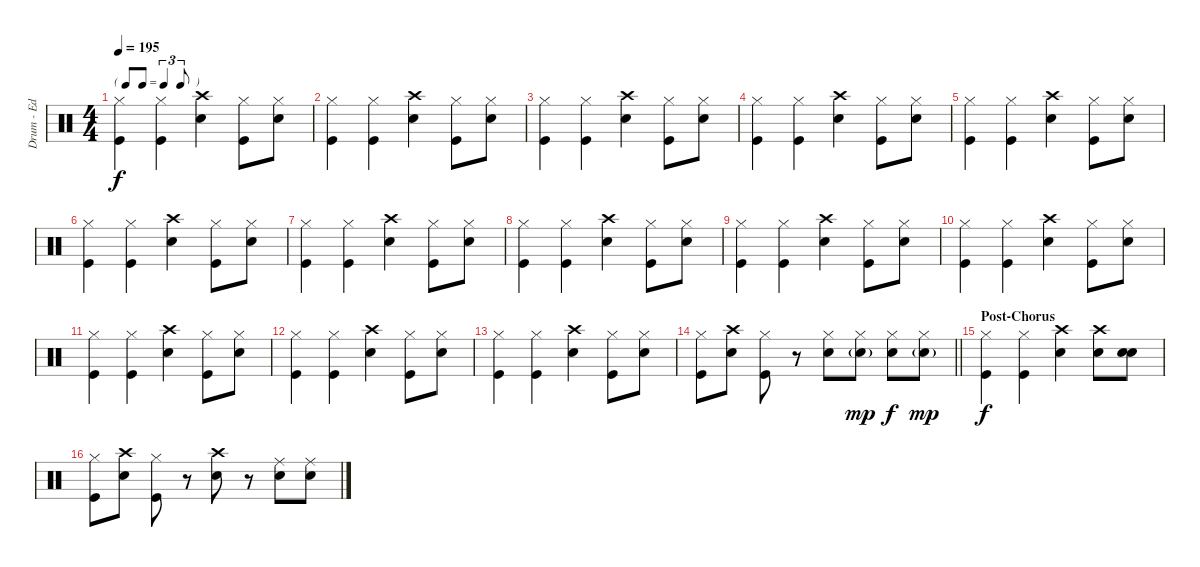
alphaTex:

\track ("Drum - Ed" "Drum - Ed") {instrument percussion}
\staff {score}
\articulation defaults
\ts (4 4)
\tf triplet8th
\tempo 195
\clef neutral
\ks c
("Hi-Hat (closed)" "Kick (hit)").4{dy f} ("Hi-Hat (closed)" "Kick (hit)").4 ("Crash high (hit)" "Electric Snare (hit)").4 ("Hi-Hat (closed)" "Kick (hit)").8 ("Hi-Hat (closed)" "Electric Snare (hit)").8 |
("Hi-Hat (closed)" "Kick (hit)").4 ("Hi-Hat (closed)" "Kick (hit)").4 ("Crash high (hit)" "Electric Snare (hit)").4 ("Hi-Hat (closed)" "Kick (hit)").8 ("Hi-Hat (closed)" "Electric Snare (hit)").8 |
("Hi-Hat (closed)" "Kick (hit)").4 ("Hi-Hat (closed)" "Kick (hit)").4 ("Crash high (hit)" "Electric Snare (hit)").4 ("Hi-Hat (closed)" "Kick (hit)").8 ("Hi-Hat (closed)" "Electric Snare (hit)").8 |
("Hi-Hat (closed)" "Kick (hit)").4 ("Hi-Hat (closed)" "Kick (hit)").4 ("Crash high (hit)" "Electric Snare (hit)").4 ("Hi-Hat (closed)" "Kick (hit)").8 ("Hi-Hat (closed)" "Electric Snare (hit)").8 |
("Hi-Hat (closed)" "Kick (hit)").4 ("Hi-Hat (closed)" "Kick (hit)").4 ("Crash high (hit)" "Electric Snare (hit)").4 ("Hi-Hat (closed)" "Kick (hit)").8 ("Hi-Hat (closed)" "Electric Snare (hit)").8 |
("Hi-Hat (closed)" "Kick (hit)").4 ("Hi-Hat (closed)" "Kick (hit)").4 ("Crash high (hit)" "Electric Snare (hit)").4 ("Hi-Hat (closed)" "Kick (hit)").8 ("Hi-Hat (closed)" "Electric Snare (hit)").8 |
("Hi-Hat (closed)" "Kick (hit)").4 ("Hi-Hat (closed)" "Kick (hit)").4 ("Crash high (hit)" "Electric Snare (hit)").4 ("Hi-Hat (closed)" "Kick (hit)").8 ("Hi-Hat (closed)" "Electric Snare (hit)").8 |
("Hi-Hat (closed)" "Kick (hit)").4 ("Hi-Hat (closed)" "Kick (hit)").4 ("Crash high (hit)" "Electric Snare (hit)").4 ("Hi-Hat (closed)" "Kick (hit)").8 ("Hi-Hat (closed)" "Electric Snare (hit)").8 |
("Hi-Hat (closed)" "Kick (hit)").4 ("Hi-Hat (closed)" "Kick (hit)").4 ("Crash high (hit)" "Electric Snare (hit)").4 ("Hi-Hat (closed)" "Kick (hit)").8 ("Hi-Hat (closed)" "Electric Snare (hit)").8 |
("Hi-Hat (closed)" "Kick (hit)").4 ("Hi-Hat (closed)" "Kick (hit)").4 ("Crash high (hit)" "Electric Snare (hit)").4 ("Hi-Hat (closed)" "Kick (hit)").8 ("Hi-Hat (closed)" "Electric Snare (hit)").8 |
("Hi-Hat (closed)" "Kick (hit)").4 ("Hi-Hat (closed)" "Kick (hit)").4 ("Crash high (hit)" "Electric Snare (hit)").4 ("Hi-Hat (closed)" "Kick (hit)").8 ("Hi-Hat (closed)" "Electric Snare (hit)").8 |
("Hi-Hat (closed)" "Kick (hit)").4 ("Hi-Hat (closed)" "Kick (hit)").4 ("Crash high (hit)" "Electric Snare (hit)").4 ("Hi-Hat (closed)" "Kick (hit)").8 ("Hi-Hat (closed)" "Electric Snare (hit)").8 |
("Hi-Hat (closed)" "Kick (hit)").4 ("Hi-Hat (closed)" "Kick (hit)").4 ("Crash high (hit)" "Electric Snare (hit)").4 ("Hi-Hat (closed)" "Kick (hit)").8 ("Hi-Hat (closed)" "Electric Snare (hit)").8 |
\barLineRight lightlight
("Hi-Hat (closed)" "Kick (hit)").8 ("Crash high (hit)" "Electric Snare (hit)").8 ("Hi-Hat (closed)" "Kick (hit)").8 r.8 ("Hi-Hat (closed)" "Electric Snare (hit)").8 ("Hi-Hat (closed)" "Electric Snare (hit)"{g}).8{dy mp} ("Hi-Hat (closed)" "Electric Snare (hit)").8{dy f} ("Hi-Hat (closed)" "Electric Snare (hit)"{g}).8{dy mp} |
\section ("" "Post-Chorus")
("Hi-Hat (closed)" "Kick (hit)").4{dy f} ("Hi-Hat (closed)" "Kick (hit)").4 ("Crash high (hit)" "Electric Snare (hit)").4 ("Crash high (hit)" "Electric Snare (hit)").8 ("Hand Clap (hit)" "Electric Snare (hit)").8 |
("Hi-Hat (closed)" "Kick (hit)").8 ("Crash high (hit)" "Electric Snare (hit)").8 ("Hi-Hat (closed)" "Kick (hit)").8 r.8 ("Crash high (hit)" "Electric Snare (hit)").8 r.8 ("Ride (middle)" "Electric Snare (hit)").8 ("Ride (middle)" "Electric Snare (hit)").8
